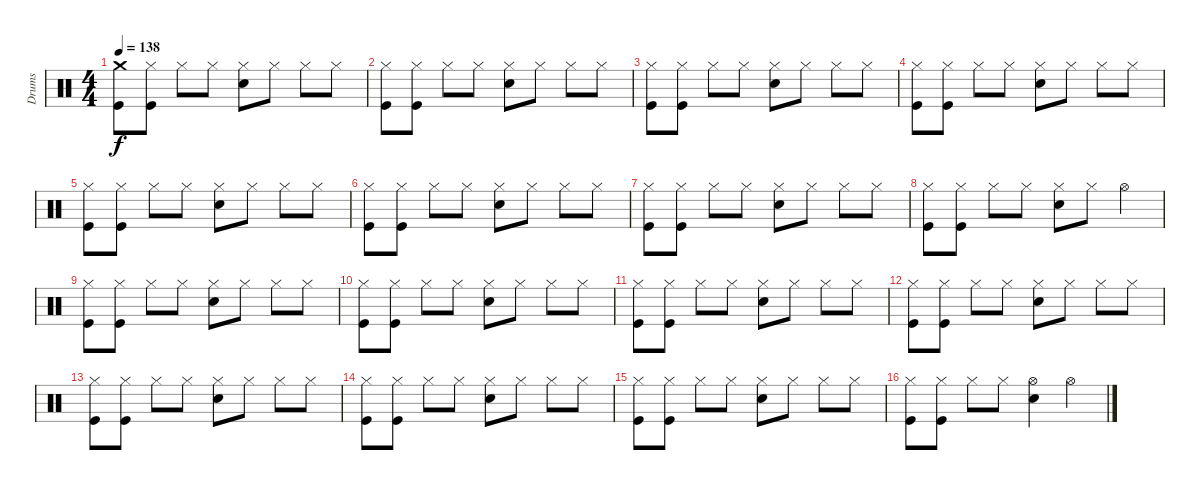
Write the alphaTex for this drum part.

\track ("Drums" "Drums") {instrument percussion}
\staff {score}
\articulation defaults
\ts (4 4)
\tempo 138
\clef neutral
\ks c
("Crash medium (hit)" "Kick (hit)").8{dy f} ("Hi-Hat (closed)" "Kick (hit)").8 "Hi-Hat (closed)".8 "Hi-Hat (closed)".8 ("Hi-Hat (closed)" "Snare (hit) 2").8 "Hi-Hat (closed)".8 "Hi-Hat (closed)".8 "Hi-Hat (closed)".8 |
("Hi-Hat (closed)" "Kick (hit)").8 ("Hi-Hat (closed)" "Kick (hit)").8 "Hi-Hat (closed)".8 "Hi-Hat (closed)".8 ("Hi-Hat (closed)" "Snare (hit) 2").8 "Hi-Hat (closed)".8 "Hi-Hat (closed)".8 "Hi-Hat (closed)".8 |
("Hi-Hat (closed)" "Kick (hit)").8 ("Hi-Hat (closed)" "Kick (hit)").8 "Hi-Hat (closed)".8 "Hi-Hat (closed)".8 ("Hi-Hat (closed)" "Snare (hit) 2").8 "Hi-Hat (closed)".8 "Hi-Hat (closed)".8 "Hi-Hat (closed)".8 |
("Hi-Hat (closed)" "Kick (hit)").8 ("Hi-Hat (closed)" "Kick (hit)").8 "Hi-Hat (closed)".8 "Hi-Hat (closed)".8 ("Hi-Hat (closed)" "Snare (hit) 2").8 "Hi-Hat (closed)".8 "Hi-Hat (closed)".8 "Hi-Hat (closed)".8 |
("Hi-Hat (closed)" "Kick (hit)").8 ("Hi-Hat (closed)" "Kick (hit)").8 "Hi-Hat (closed)".8 "Hi-Hat (closed)".8 ("Hi-Hat (closed)" "Snare (hit) 2").8 "Hi-Hat (closed)".8 "Hi-Hat (closed)".8 "Hi-Hat (closed)".8 |
("Hi-Hat (closed)" "Kick (hit)").8 ("Hi-Hat (closed)" "Kick (hit)").8 "Hi-Hat (closed)".8 "Hi-Hat (closed)".8 ("Hi-Hat (closed)" "Snare (hit) 2").8 "Hi-Hat (closed)".8 "Hi-Hat (closed)".8 "Hi-Hat (closed)".8 |
("Hi-Hat (closed)" "Kick (hit)").8 ("Hi-Hat (closed)" "Kick (hit)").8 "Hi-Hat (closed)".8 "Hi-Hat (closed)".8 ("Hi-Hat (closed)" "Snare (hit) 2").8 "Hi-Hat (closed)".8 "Hi-Hat (closed)".8 "Hi-Hat (closed)".8 |
("Hi-Hat (closed)" "Kick (hit)").8 ("Hi-Hat (closed)" "Kick (hit)").8 "Hi-Hat (closed)".8 "Hi-Hat (closed)".8 ("Hi-Hat (closed)" "Snare (hit) 2").8 "Hi-Hat (closed)".8 "Hi-Hat (open)".4 |
("Hi-Hat (closed)" "Kick (hit)").8 ("Hi-Hat (closed)" "Kick (hit)").8 "Hi-Hat (closed)".8 "Hi-Hat (closed)".8 ("Hi-Hat (closed)" "Snare (hit) 2").8 "Hi-Hat (closed)".8 "Hi-Hat (closed)".8 "Hi-Hat (closed)".8 |
("Hi-Hat (closed)" "Kick (hit)").8 ("Hi-Hat (closed)" "Kick (hit)").8 "Hi-Hat (closed)".8 "Hi-Hat (closed)".8 ("Hi-Hat (closed)" "Snare (hit) 2").8 "Hi-Hat (closed)".8 "Hi-Hat (closed)".8 "Hi-Hat (closed)".8 |
("Hi-Hat (closed)" "Kick (hit)").8 ("Hi-Hat (closed)" "Kick (hit)").8 "Hi-Hat (closed)".8 "Hi-Hat (closed)".8 ("Hi-Hat (closed)" "Snare (hit) 2").8 "Hi-Hat (closed)".8 "Hi-Hat (closed)".8 "Hi-Hat (closed)".8 |
("Hi-Hat (closed)" "Kick (hit)").8 ("Hi-Hat (closed)" "Kick (hit)").8 "Hi-Hat (closed)".8 "Hi-Hat (closed)".8 ("Hi-Hat (closed)" "Snare (hit) 2").8 "Hi-Hat (closed)".8 "Hi-Hat (closed)".8 "Hi-Hat (closed)".8 |
("Hi-Hat (closed)" "Kick (hit)").8 ("Hi-Hat (closed)" "Kick (hit)").8 "Hi-Hat (closed)".8 "Hi-Hat (closed)".8 ("Hi-Hat (closed)" "Snare (hit) 2").8 "Hi-Hat (closed)".8 "Hi-Hat (closed)".8 "Hi-Hat (closed)".8 |
("Hi-Hat (closed)" "Kick (hit)").8 ("Hi-Hat (closed)" "Kick (hit)").8 "Hi-Hat (closed)".8 "Hi-Hat (closed)".8 ("Hi-Hat (closed)" "Snare (hit) 2").8 "Hi-Hat (closed)".8 "Hi-Hat (closed)".8 "Hi-Hat (closed)".8 |
("Hi-Hat (closed)" "Kick (hit)").8 ("Hi-Hat (closed)" "Kick (hit)").8 "Hi-Hat (closed)".8 "Hi-Hat (closed)".8 ("Hi-Hat (closed)" "Snare (hit) 2").8 "Hi-Hat (closed)".8 "Hi-Hat (closed)".8 "Hi-Hat (closed)".8 |
("Hi-Hat (closed)" "Kick (hit)").8 ("Hi-Hat (closed)" "Kick (hit)").8 "Hi-Hat (closed)".8 "Hi-Hat (closed)".8 ("Hi-Hat (open)" "Snare (hit) 2").4 "Hi-Hat (open)".4
